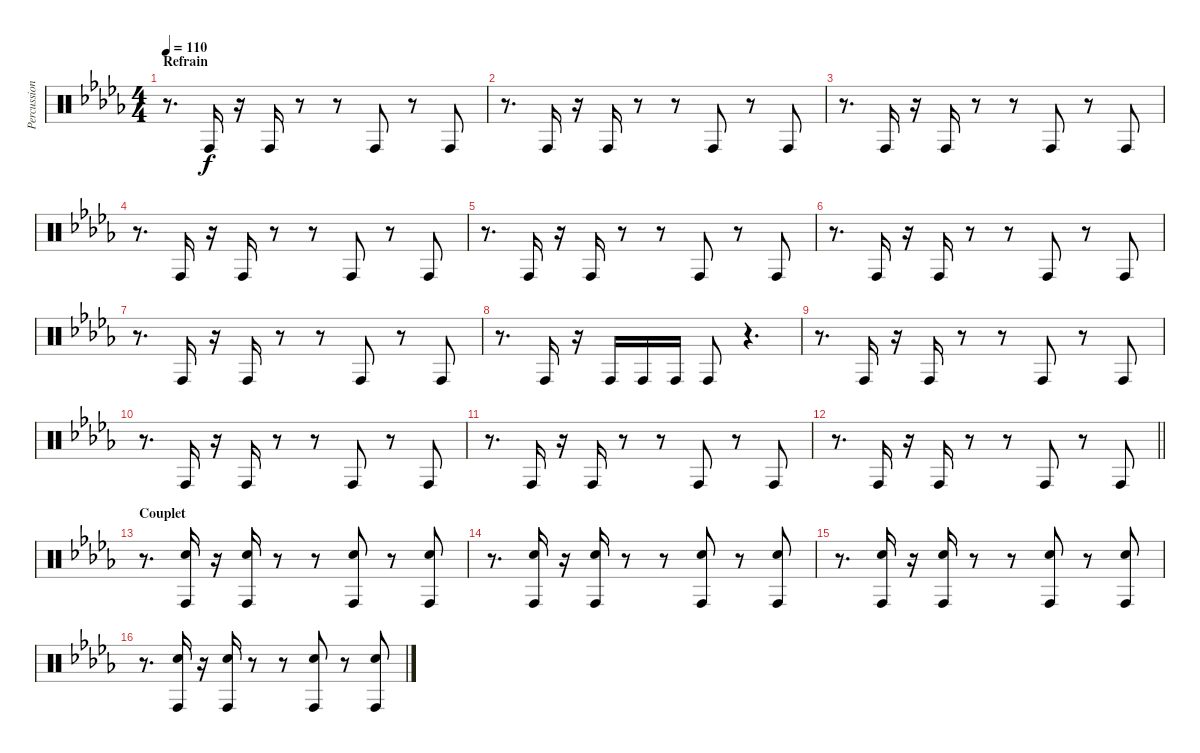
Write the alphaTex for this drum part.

\track ("Percussions" "Percussion") {instrument percussion}
\staff {score}
\articulation defaults
\ts (4 4)
\section ("" "Refrain")
\tempo 110
\clef neutral
\ks bbminor
r.8{d dy f} "Conga high (hit)".16 r.16 "Conga high (hit)".16 r.8 r.8 "Conga high (hit)".8 r.8 "Conga high (hit)".8 |
r.8{d} "Conga high (hit)".16 r.16 "Conga high (hit)".16 r.8 r.8 "Conga high (hit)".8 r.8 "Conga high (hit)".8 |
r.8{d} "Conga high (hit)".16 r.16 "Conga high (hit)".16 r.8 r.8 "Conga high (hit)".8 r.8 "Conga high (hit)".8 |
r.8{d} "Conga high (hit)".16 r.16 "Conga high (hit)".16 r.8 r.8 "Conga high (hit)".8 r.8 "Conga high (hit)".8 |
r.8{d} "Conga high (hit)".16 r.16 "Conga high (hit)".16 r.8 r.8 "Conga high (hit)".8 r.8 "Conga high (hit)".8 |
r.8{d} "Conga high (hit)".16 r.16 "Conga high (hit)".16 r.8 r.8 "Conga high (hit)".8 r.8 "Conga high (hit)".8 |
r.8{d} "Conga high (hit)".16 r.16 "Conga high (hit)".16 r.8 r.8 "Conga high (hit)".8 r.8 "Conga high (hit)".8 |
r.8{d} "Conga high (hit)".16 r.16 "Conga high (hit)".16 "Conga high (hit)".16 "Conga high (hit)".16 "Conga high (hit)".8 r.4{d} |
r.8{d} "Conga high (hit)".16 r.16 "Conga high (hit)".16 r.8 r.8 "Conga high (hit)".8 r.8 "Conga high (hit)".8 |
r.8{d} "Conga high (hit)".16 r.16 "Conga high (hit)".16 r.8 r.8 "Conga high (hit)".8 r.8 "Conga high (hit)".8 |
r.8{d} "Conga high (hit)".16 r.16 "Conga high (hit)".16 r.8 r.8 "Conga high (hit)".8 r.8 "Conga high (hit)".8 |
\barLineRight lightlight
r.8{d} "Conga high (hit)".16 r.16 "Conga high (hit)".16 r.8 r.8 "Conga high (hit)".8 r.8 "Conga high (hit)".8 |
\section ("" "Couplet")
r.8{d} ("Conga high (hit)" "Hand Clap (hit)").16 r.16 ("Conga high (hit)" "Hand Clap (hit)").16 r.8 r.8 ("Conga high (hit)" "Hand Clap (hit)").8 r.8 ("Conga high (hit)" "Hand Clap (hit)").8 |
r.8{d} ("Conga high (hit)" "Hand Clap (hit)").16 r.16 ("Conga high (hit)" "Hand Clap (hit)").16 r.8 r.8 ("Conga high (hit)" "Hand Clap (hit)").8 r.8 ("Conga high (hit)" "Hand Clap (hit)").8 |
r.8{d} ("Conga high (hit)" "Hand Clap (hit)").16 r.16 ("Conga high (hit)" "Hand Clap (hit)").16 r.8 r.8 ("Conga high (hit)" "Hand Clap (hit)").8 r.8 ("Conga high (hit)" "Hand Clap (hit)").8 |
r.8{d} ("Conga high (hit)" "Hand Clap (hit)").16 r.16 ("Conga high (hit)" "Hand Clap (hit)").16 r.8 r.8 ("Conga high (hit)" "Hand Clap (hit)").8 r.8 ("Conga high (hit)" "Hand Clap (hit)").8
